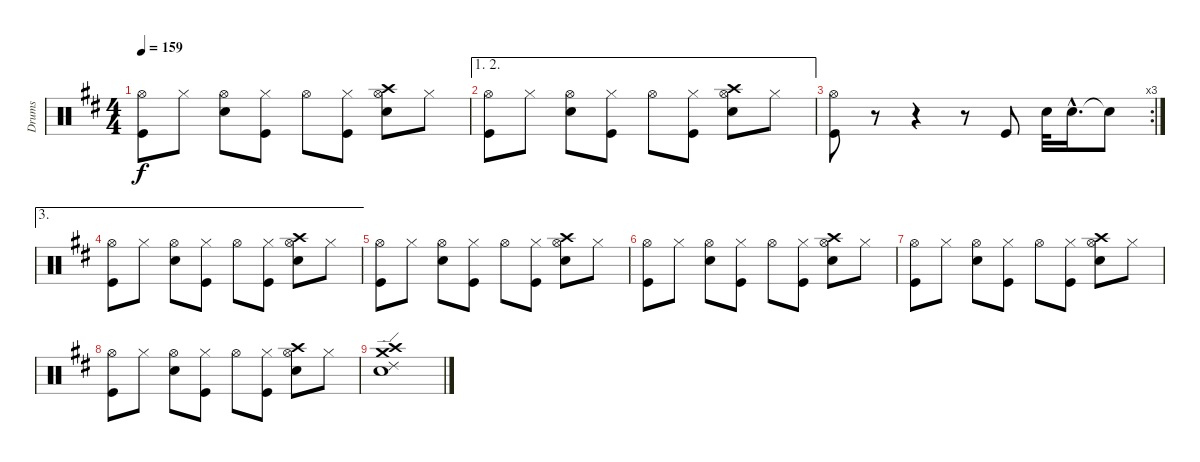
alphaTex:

\track ("Drums" "Drums") {instrument percussion}
\staff {score}
\articulation defaults
\ts (4 4)
\tempo 159
\clef neutral
\ks d
("Hi-Hat (open)" "Kick (hit)").8{dy f} "Hi-Hat (closed)".8 ("Hi-Hat (open)" "Snare (hit) 2").8 ("Hi-Hat (closed)" "Kick (hit)").8 "Hi-Hat (open)".8 ("Hi-Hat (closed)" "Kick (hit)").8 ("Hi-Hat (open)" "Snare (hit) 2" "Crash high (hit)").8 "Hi-Hat (closed)".8 |
\ae (1 2)
("Hi-Hat (open)" "Kick (hit)").8 "Hi-Hat (closed)".8 ("Hi-Hat (open)" "Snare (hit) 2").8 ("Hi-Hat (closed)" "Kick (hit)").8 "Hi-Hat (open)".8 ("Hi-Hat (closed)" "Kick (hit)").8 ("Hi-Hat (open)" "Snare (hit) 2" "Crash high (hit)").8 "Hi-Hat (closed)".8 |
\rc 3
("Hi-Hat (open)" "Kick (hit)").8 r.8 r.4 r.8 "Kick (hit)".8 "Snare (hit) 2".32 "Snare (hit) 2"{hac}.16{d} "Snare (hit)"{t}.8 |
\ae 3
("Hi-Hat (open)" "Kick (hit)").8 "Hi-Hat (closed)".8 ("Hi-Hat (open)" "Snare (hit) 2").8 ("Hi-Hat (closed)" "Kick (hit)").8 "Hi-Hat (open)".8 ("Hi-Hat (closed)" "Kick (hit)").8 ("Hi-Hat (open)" "Snare (hit) 2" "Crash high (hit)").8 "Hi-Hat (closed)".8 |
("Hi-Hat (open)" "Kick (hit)").8 "Hi-Hat (closed)".8 ("Hi-Hat (open)" "Snare (hit) 2").8 ("Hi-Hat (closed)" "Kick (hit)").8 "Hi-Hat (open)".8 ("Hi-Hat (closed)" "Kick (hit)").8 ("Hi-Hat (open)" "Snare (hit) 2" "Crash high (hit)").8 "Hi-Hat (closed)".8 |
("Hi-Hat (open)" "Kick (hit)").8 "Hi-Hat (closed)".8 ("Hi-Hat (open)" "Snare (hit) 2").8 ("Hi-Hat (closed)" "Kick (hit)").8 "Hi-Hat (open)".8 ("Hi-Hat (closed)" "Kick (hit)").8 ("Hi-Hat (open)" "Snare (hit) 2" "Crash high (hit)").8 "Hi-Hat (closed)".8 |
("Hi-Hat (open)" "Kick (hit)").8 "Hi-Hat (closed)".8 ("Hi-Hat (open)" "Snare (hit) 2").8 ("Hi-Hat (closed)" "Kick (hit)").8 "Hi-Hat (open)".8 ("Hi-Hat (closed)" "Kick (hit)").8 ("Hi-Hat (open)" "Snare (hit) 2" "Crash high (hit)").8 "Hi-Hat (closed)".8 |
("Hi-Hat (open)" "Kick (hit)").8 "Hi-Hat (closed)".8 ("Hi-Hat (open)" "Snare (hit) 2").8 ("Hi-Hat (closed)" "Kick (hit)").8 "Hi-Hat (open)".8 ("Hi-Hat (closed)" "Kick (hit)").8 ("Hi-Hat (open)" "Snare (hit) 2" "Crash high (hit)").8 "Hi-Hat (closed)".8 |
("Snare (hit) 2" "Crash high (hit)" "Crash medium (hit)" "Ride (edge) 2").1
